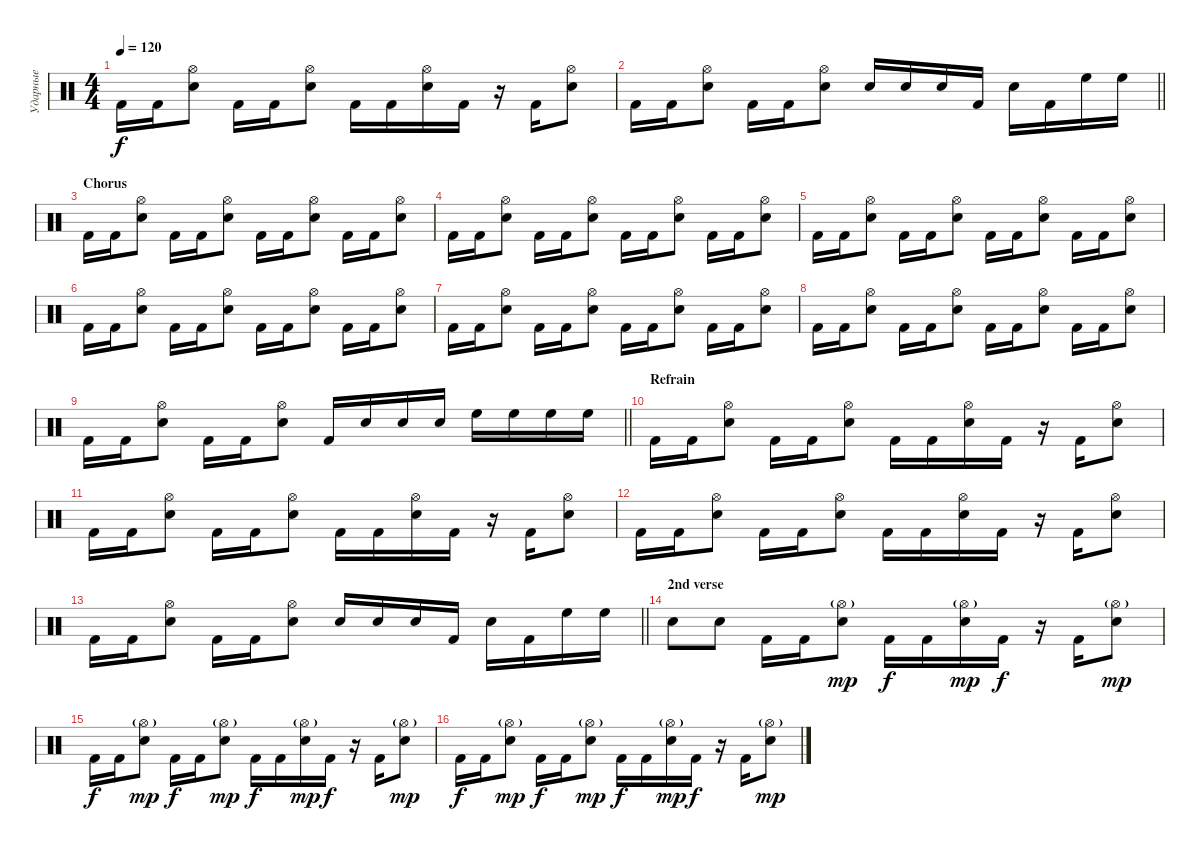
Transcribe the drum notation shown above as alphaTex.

\track ("Ударные" "Ударные") {instrument percussion}
\staff {score}
\articulation defaults
\ts (4 4)
\tempo 120
\clef neutral
\ks c "Kick (hit) 2".16{dy f} "Kick (hit) 2".16
("Electric Snare (hit)" "Hi-Hat (open)").8 "Kick (hit) 2".16 "Kick (hit) 2".16 ("Electric Snare (hit)" "Hi-Hat (open)").8 "Kick (hit) 2".16 "Kick (hit) 2".16 ("Electric Snare (hit)" "Hi-Hat (open)").16 "Kick (hit) 2".16 r.16 "Kick (hit) 2".16 ("Electric Snare (hit)" "Hi-Hat (open)").8 |
\barLineRight lightlight "Kick (hit) 2".16 "Kick (hit) 2".16
("Electric Snare (hit)" "Hi-Hat (open)").8 "Kick (hit) 2".16 "Kick (hit) 2".16 ("Electric Snare (hit)" "Hi-Hat (open)").8 "Electric Snare (hit)".16 "Electric Snare (hit)".16 "Electric Snare (hit)".16 "Kick (hit) 2".16 "Electric Snare (hit)".16 "Kick (hit) 2".16 "High Floor Tom (hit)".16 "High Floor Tom (hit)".16 |
\section ("" "Chorus")
"Kick (hit) 2".16 "Kick (hit) 2".16 ("Electric Snare (hit)" "Hi-Hat (open)").8 "Kick (hit) 2".16 "Kick (hit) 2".16 ("Electric Snare (hit)" "Hi-Hat (open)").8 "Kick (hit) 2".16 "Kick (hit) 2".16 ("Electric Snare (hit)" "Hi-Hat (open)").8 "Kick (hit) 2".16 "Kick (hit) 2".16 ("Electric Snare (hit)" "Hi-Hat (open)").8 |
"Kick (hit) 2".16 "Kick (hit) 2".16 ("Electric Snare (hit)" "Hi-Hat (open)").8 "Kick (hit) 2".16 "Kick (hit) 2".16 ("Electric Snare (hit)" "Hi-Hat (open)").8 "Kick (hit) 2".16 "Kick (hit) 2".16 ("Electric Snare (hit)" "Hi-Hat (open)").8 "Kick (hit) 2".16 "Kick (hit) 2".16 ("Electric Snare (hit)" "Hi-Hat (open)").8 |
"Kick (hit) 2".16 "Kick (hit) 2".16 ("Electric Snare (hit)" "Hi-Hat (open)").8 "Kick (hit) 2".16 "Kick (hit) 2".16 ("Electric Snare (hit)" "Hi-Hat (open)").8 "Kick (hit) 2".16 "Kick (hit) 2".16 ("Electric Snare (hit)" "Hi-Hat (open)").8 "Kick (hit) 2".16 "Kick (hit) 2".16 ("Electric Snare (hit)" "Hi-Hat (open)").8 |
"Kick (hit) 2".16 "Kick (hit) 2".16 ("Electric Snare (hit)" "Hi-Hat (open)").8 "Kick (hit) 2".16 "Kick (hit) 2".16 ("Electric Snare (hit)" "Hi-Hat (open)").8 "Kick (hit) 2".16 "Kick (hit) 2".16 ("Electric Snare (hit)" "Hi-Hat (open)").8 "Kick (hit) 2".16 "Kick (hit) 2".16 ("Electric Snare (hit)" "Hi-Hat (open)").8 |
"Kick (hit) 2".16 "Kick (hit) 2".16 ("Electric Snare (hit)" "Hi-Hat (open)").8 "Kick (hit) 2".16 "Kick (hit) 2".16 ("Electric Snare (hit)" "Hi-Hat (open)").8 "Kick (hit) 2".16 "Kick (hit) 2".16 ("Electric Snare (hit)" "Hi-Hat (open)").8 "Kick (hit) 2".16 "Kick (hit) 2".16 ("Electric Snare (hit)" "Hi-Hat (open)").8 |
"Kick (hit) 2".16 "Kick (hit) 2".16 ("Electric Snare (hit)" "Hi-Hat (open)").8 "Kick (hit) 2".16 "Kick (hit) 2".16 ("Electric Snare (hit)" "Hi-Hat (open)").8 "Kick (hit) 2".16 "Kick (hit) 2".16 ("Electric Snare (hit)" "Hi-Hat (open)").8 "Kick (hit) 2".16 "Kick (hit) 2".16 ("Electric Snare (hit)" "Hi-Hat (open)").8 |
\barLineRight lightlight "Kick (hit) 2".16 "Kick (hit) 2".16
("Electric Snare (hit)" "Hi-Hat (open)").8 "Kick (hit) 2".16 "Kick (hit) 2".16 ("Electric Snare (hit)" "Hi-Hat (open)").8 "Kick (hit) 2".16 "Electric Snare (hit)".16 "Electric Snare (hit)".16 "Electric Snare (hit)".16 "High Floor Tom (hit)".16 "High Floor Tom (hit)".16 "High Floor Tom (hit)".16 "High Floor Tom (hit)".16 |
\section ("" "Refrain")
"Kick (hit) 2".16 "Kick (hit) 2".16 ("Electric Snare (hit)" "Hi-Hat (open)").8 "Kick (hit) 2".16 "Kick (hit) 2".16 ("Electric Snare (hit)" "Hi-Hat (open)").8 "Kick (hit) 2".16 "Kick (hit) 2".16 ("Electric Snare (hit)" "Hi-Hat (open)").16 "Kick (hit) 2".16 r.16 "Kick (hit) 2".16 ("Electric Snare (hit)" "Hi-Hat (open)").8 |
"Kick (hit) 2".16 "Kick (hit) 2".16 ("Electric Snare (hit)" "Hi-Hat (open)").8 "Kick (hit) 2".16 "Kick (hit) 2".16 ("Electric Snare (hit)" "Hi-Hat (open)").8 "Kick (hit) 2".16 "Kick (hit) 2".16 ("Electric Snare (hit)" "Hi-Hat (open)").16 "Kick (hit) 2".16 r.16 "Kick (hit) 2".16 ("Electric Snare (hit)" "Hi-Hat (open)").8 |
"Kick (hit) 2".16 "Kick (hit) 2".16 ("Electric Snare (hit)" "Hi-Hat (open)").8 "Kick (hit) 2".16 "Kick (hit) 2".16 ("Electric Snare (hit)" "Hi-Hat (open)").8 "Kick (hit) 2".16 "Kick (hit) 2".16 ("Electric Snare (hit)" "Hi-Hat (open)").16 "Kick (hit) 2".16 r.16 "Kick (hit) 2".16 ("Electric Snare (hit)" "Hi-Hat (open)").8 |
\barLineRight lightlight "Kick (hit) 2".16 "Kick (hit) 2".16
("Electric Snare (hit)" "Hi-Hat (open)").8 "Kick (hit) 2".16 "Kick (hit) 2".16 ("Electric Snare (hit)" "Hi-Hat (open)").8 "Electric Snare (hit)".16 "Electric Snare (hit)".16 "Electric Snare (hit)".16 "Kick (hit) 2".16 "Electric Snare (hit)".16 "Kick (hit) 2".16 "High Floor Tom (hit)".16 "High Floor Tom (hit)".16 |
\section ("" "2nd verse")
"Electric Snare (hit)".8 "Electric Snare (hit)".8 "Kick (hit) 2".16 "Kick (hit) 2".16 ("Electric Snare (hit)" "Hi-Hat (open)"{g}).8{dy mp} "Kick (hit) 2".16{dy f} "Kick (hit) 2".16 ("Electric Snare (hit)" "Hi-Hat (open)"{g}).16{dy mp} "Kick (hit) 2".16{dy f} r.16 "Kick (hit) 2".16 ("Electric Snare (hit)" "Hi-Hat (open)"{g}).8{dy mp} |
"Kick (hit) 2".16{dy f} "Kick (hit) 2".16 ("Electric Snare (hit)" "Hi-Hat (open)"{g}).8{dy mp} "Kick (hit) 2".16{dy f} "Kick (hit) 2".16 ("Electric Snare (hit)" "Hi-Hat (open)"{g}).8{dy mp} "Kick (hit) 2".16{dy f} "Kick (hit) 2".16 ("Electric Snare (hit)" "Hi-Hat (open)"{g}).16{dy mp} "Kick (hit) 2".16{dy f} r.16 "Kick (hit) 2".16 ("Electric Snare (hit)" "Hi-Hat (open)"{g}).8{dy mp} |
"Kick (hit) 2".16{dy f} "Kick (hit) 2".16 ("Electric Snare (hit)" "Hi-Hat (open)"{g}).8{dy mp} "Kick (hit) 2".16{dy f} "Kick (hit) 2".16 ("Electric Snare (hit)" "Hi-Hat (open)"{g}).8{dy mp} "Kick (hit) 2".16{dy f} "Kick (hit) 2".16 ("Electric Snare (hit)" "Hi-Hat (open)"{g}).16{dy mp} "Kick (hit) 2".16{dy f} r.16 "Kick (hit) 2".16 ("Electric Snare (hit)" "Hi-Hat (open)"{g}).8{dy mp}
